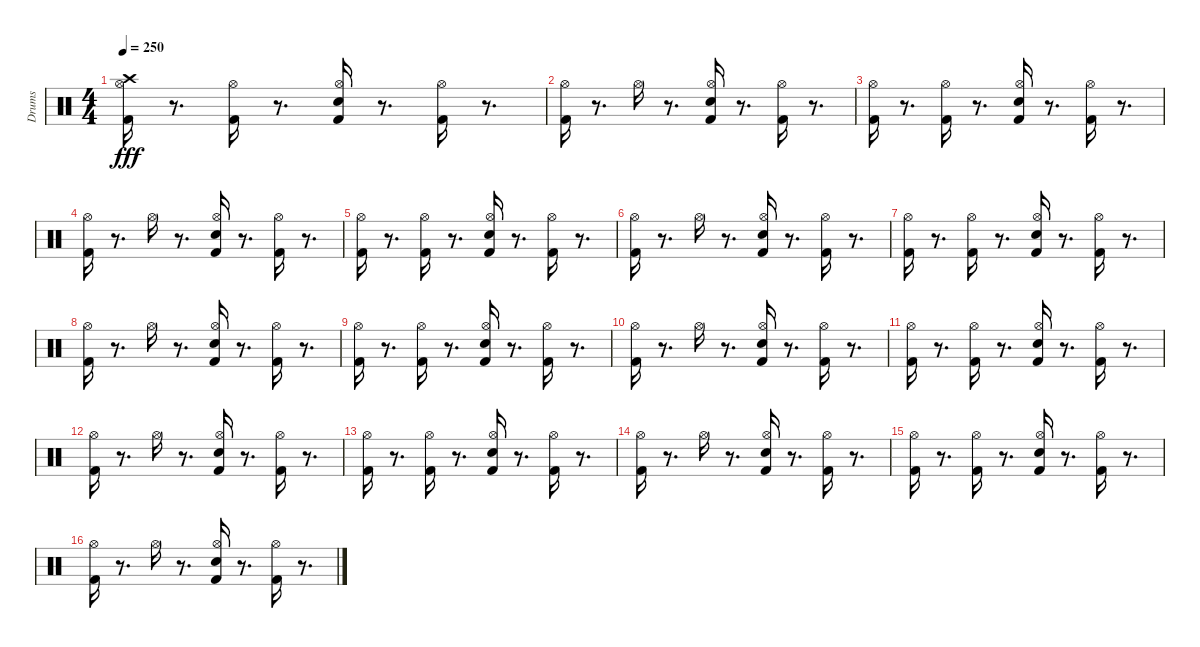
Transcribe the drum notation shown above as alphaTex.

\track ("Drums" "Drums") {instrument percussion}
\staff {score}
\articulation defaults
\ts (4 4)
\tempo 250
\clef neutral
\ks c
("Kick (hit) 2" "Hi-Hat (open)" "Crash high (hit)").16{dy fff} r.8{d} ("Kick (hit) 2" "Hi-Hat (open)").16 r.8{d} ("Kick (hit) 2" "Electric Snare (hit)" "Hi-Hat (open)").16 r.8{d} ("Kick (hit) 2" "Hi-Hat (open)").16 r.8{d} |
("Kick (hit) 2" "Hi-Hat (open)").16 r.8{d} "Hi-Hat (open)".16 r.8{d} ("Kick (hit) 2" "Electric Snare (hit)" "Hi-Hat (open)").16 r.8{d} ("Kick (hit) 2" "Hi-Hat (open)").16 r.8{d} |
("Hi-Hat (open)" "Kick (hit) 2").16 r.8{d} ("Kick (hit) 2" "Hi-Hat (open)").16 r.8{d} ("Kick (hit) 2" "Electric Snare (hit)" "Hi-Hat (open)").16 r.8{d} ("Kick (hit) 2" "Hi-Hat (open)").16 r.8{d} |
("Kick (hit) 2" "Hi-Hat (open)").16 r.8{d} "Hi-Hat (open)".16 r.8{d} ("Kick (hit) 2" "Electric Snare (hit)" "Hi-Hat (open)").16 r.8{d} ("Kick (hit) 2" "Hi-Hat (open)").16 r.8{d} |
("Hi-Hat (open)" "Kick (hit) 2").16 r.8{d} ("Kick (hit) 2" "Hi-Hat (open)").16 r.8{d} ("Kick (hit) 2" "Electric Snare (hit)" "Hi-Hat (open)").16 r.8{d} ("Kick (hit) 2" "Hi-Hat (open)").16 r.8{d} |
("Kick (hit) 2" "Hi-Hat (open)").16 r.8{d} "Hi-Hat (open)".16 r.8{d} ("Kick (hit) 2" "Electric Snare (hit)" "Hi-Hat (open)").16 r.8{d} ("Kick (hit) 2" "Hi-Hat (open)").16 r.8{d} |
("Hi-Hat (open)" "Kick (hit) 2").16 r.8{d} ("Kick (hit) 2" "Hi-Hat (open)").16 r.8{d} ("Kick (hit) 2" "Electric Snare (hit)" "Hi-Hat (open)").16 r.8{d} ("Kick (hit) 2" "Hi-Hat (open)").16 r.8{d} |
("Kick (hit) 2" "Hi-Hat (open)").16 r.8{d} "Hi-Hat (open)".16 r.8{d} ("Kick (hit) 2" "Electric Snare (hit)" "Hi-Hat (open)").16 r.8{d} ("Kick (hit) 2" "Hi-Hat (open)").16 r.8{d} |
("Hi-Hat (open)" "Kick (hit) 2").16 r.8{d} ("Kick (hit) 2" "Hi-Hat (open)").16 r.8{d} ("Kick (hit) 2" "Electric Snare (hit)" "Hi-Hat (open)").16 r.8{d} ("Kick (hit) 2" "Hi-Hat (open)").16 r.8{d} |
("Kick (hit) 2" "Hi-Hat (open)").16 r.8{d} "Hi-Hat (open)".16 r.8{d} ("Kick (hit) 2" "Electric Snare (hit)" "Hi-Hat (open)").16 r.8{d} ("Kick (hit) 2" "Hi-Hat (open)").16 r.8{d} |
("Hi-Hat (open)" "Kick (hit) 2").16 r.8{d} ("Kick (hit) 2" "Hi-Hat (open)").16 r.8{d} ("Kick (hit) 2" "Electric Snare (hit)" "Hi-Hat (open)").16 r.8{d} ("Kick (hit) 2" "Hi-Hat (open)").16 r.8{d} |
("Kick (hit) 2" "Hi-Hat (open)").16 r.8{d} "Hi-Hat (open)".16 r.8{d} ("Kick (hit) 2" "Electric Snare (hit)" "Hi-Hat (open)").16 r.8{d} ("Kick (hit) 2" "Hi-Hat (open)").16 r.8{d} |
("Hi-Hat (open)" "Kick (hit) 2").16 r.8{d} ("Kick (hit) 2" "Hi-Hat (open)").16 r.8{d} ("Kick (hit) 2" "Electric Snare (hit)" "Hi-Hat (open)").16 r.8{d} ("Kick (hit) 2" "Hi-Hat (open)").16 r.8{d} |
("Kick (hit) 2" "Hi-Hat (open)").16 r.8{d} "Hi-Hat (open)".16 r.8{d} ("Kick (hit) 2" "Electric Snare (hit)" "Hi-Hat (open)").16 r.8{d} ("Kick (hit) 2" "Hi-Hat (open)").16 r.8{d} |
("Hi-Hat (open)" "Kick (hit) 2").16 r.8{d} ("Kick (hit) 2" "Hi-Hat (open)").16 r.8{d} ("Kick (hit) 2" "Electric Snare (hit)" "Hi-Hat (open)").16 r.8{d} ("Kick (hit) 2" "Hi-Hat (open)").16 r.8{d} |
("Kick (hit) 2" "Hi-Hat (open)").16 r.8{d} "Hi-Hat (open)".16 r.8{d} ("Kick (hit) 2" "Electric Snare (hit)" "Hi-Hat (open)").16 r.8{d} ("Kick (hit) 2" "Hi-Hat (open)").16 r.8{d}
